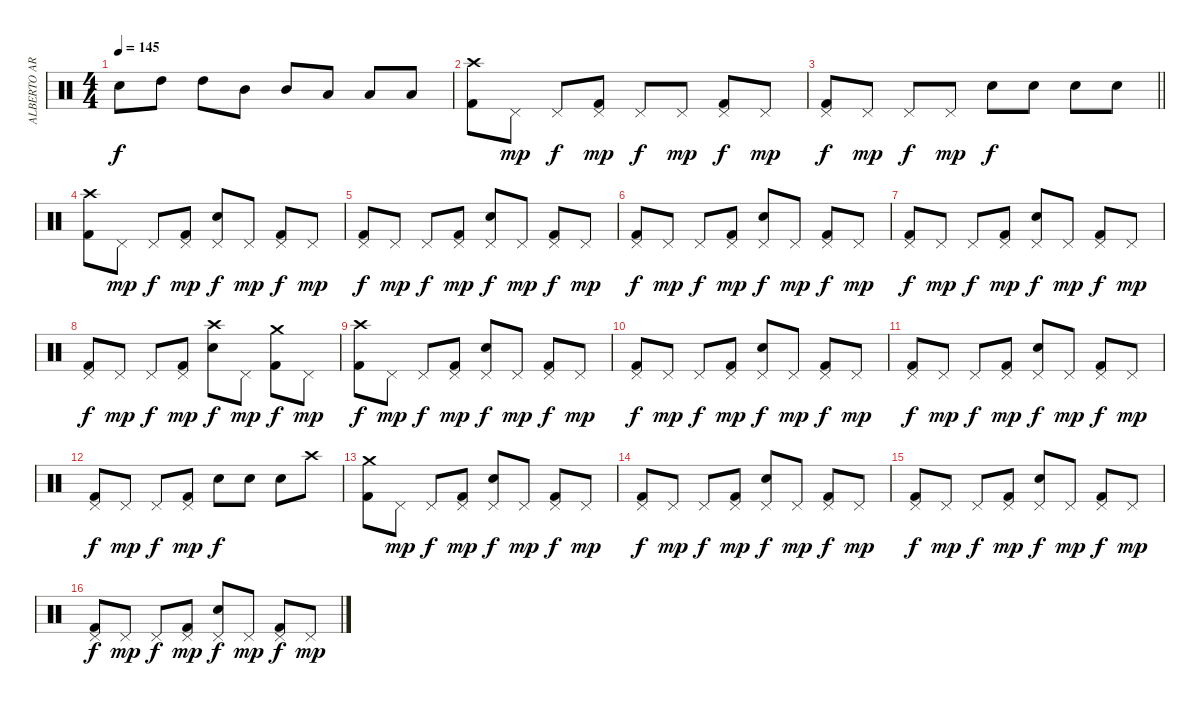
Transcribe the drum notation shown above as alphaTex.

\track ("ALBERTO ARDINES" "ALBERTO AR") {instrument percussion}
\staff {score}
\articulation defaults
\ts (4 4)
\tempo 145
\clef neutral
\ks c "Electric Snare (hit)".8{dy f} "High Tom (hit)".8 "High Tom (hit)".8 "Mid Tom (hit)".8 "Mid Tom (hit)".8 "Low Tom (hit)".8 "Low Tom (hit)".8 "Low Tom (hit)".8
|
("Crash high (hit)" "Kick (hit) 2").8 "Pedal Hi-Hat (hit)".8{dy mp} "Pedal Hi-Hat (hit)".8{dy f} ("Pedal Hi-Hat (hit)" "Kick (hit) 2").8{dy mp} "Pedal Hi-Hat (hit)".8{dy f} "Pedal Hi-Hat (hit)".8{dy mp} ("Pedal Hi-Hat (hit)" "Kick (hit) 2").8{dy f} "Pedal Hi-Hat (hit)".8{dy mp} |
\barLineRight lightlight
("Pedal Hi-Hat (hit)" "Kick (hit) 2").8{dy f} "Pedal Hi-Hat (hit)".8{dy mp} "Pedal Hi-Hat (hit)".8{dy f} "Pedal Hi-Hat (hit)".8{dy mp} "Electric Snare (hit)".8{dy f} "Electric Snare (hit)".8 "Electric Snare (hit)".8 "Electric Snare (hit)".8 |
("Crash high (hit)" "Kick (hit) 2").8 "Pedal Hi-Hat (hit)".8{dy mp} "Pedal Hi-Hat (hit)".8{dy f} ("Pedal Hi-Hat (hit)" "Kick (hit) 2").8{dy mp} ("Pedal Hi-Hat (hit)" "Electric Snare (hit)").8{dy f} "Pedal Hi-Hat (hit)".8{dy mp} ("Pedal Hi-Hat (hit)" "Kick (hit) 2").8{dy f} "Pedal Hi-Hat (hit)".8{dy mp} |
("Pedal Hi-Hat (hit)" "Kick (hit) 2").8{dy f} "Pedal Hi-Hat (hit)".8{dy mp} "Pedal Hi-Hat (hit)".8{dy f} ("Pedal Hi-Hat (hit)" "Kick (hit) 2").8{dy mp} ("Pedal Hi-Hat (hit)" "Electric Snare (hit)").8{dy f} "Pedal Hi-Hat (hit)".8{dy mp} ("Pedal Hi-Hat (hit)" "Kick (hit) 2").8{dy f} "Pedal Hi-Hat (hit)".8{dy mp} |
("Pedal Hi-Hat (hit)" "Kick (hit) 2").8{dy f} "Pedal Hi-Hat (hit)".8{dy mp} "Pedal Hi-Hat (hit)".8{dy f} ("Pedal Hi-Hat (hit)" "Kick (hit) 2").8{dy mp} ("Pedal Hi-Hat (hit)" "Electric Snare (hit)").8{dy f} "Pedal Hi-Hat (hit)".8{dy mp} ("Pedal Hi-Hat (hit)" "Kick (hit) 2").8{dy f} "Pedal Hi-Hat (hit)".8{dy mp} |
("Pedal Hi-Hat (hit)" "Kick (hit) 2").8{dy f} "Pedal Hi-Hat (hit)".8{dy mp} "Pedal Hi-Hat (hit)".8{dy f} ("Pedal Hi-Hat (hit)" "Kick (hit) 2").8{dy mp} ("Pedal Hi-Hat (hit)" "Electric Snare (hit)").8{dy f} "Pedal Hi-Hat (hit)".8{dy mp} ("Pedal Hi-Hat (hit)" "Kick (hit) 2").8{dy f} "Pedal Hi-Hat (hit)".8{dy mp} |
("Pedal Hi-Hat (hit)" "Kick (hit) 2").8{dy f} "Pedal Hi-Hat (hit)".8{dy mp} "Pedal Hi-Hat (hit)".8{dy f} ("Pedal Hi-Hat (hit)" "Kick (hit) 2").8{dy mp} ("Crash high (hit)" "Electric Snare (hit)").8{dy f} "Pedal Hi-Hat (hit)".8{dy mp} ("Crash medium (hit)" "Kick (hit) 2").8{dy f} "Pedal Hi-Hat (hit)".8{dy mp} |
("Crash high (hit)" "Kick (hit) 2").8{dy f} "Pedal Hi-Hat (hit)".8{dy mp} "Pedal Hi-Hat (hit)".8{dy f} ("Pedal Hi-Hat (hit)" "Kick (hit) 2").8{dy mp} ("Pedal Hi-Hat (hit)" "Electric Snare (hit)").8{dy f} "Pedal Hi-Hat (hit)".8{dy mp} ("Pedal Hi-Hat (hit)" "Kick (hit) 2").8{dy f} "Pedal Hi-Hat (hit)".8{dy mp} |
("Pedal Hi-Hat (hit)" "Kick (hit) 2").8{dy f} "Pedal Hi-Hat (hit)".8{dy mp} "Pedal Hi-Hat (hit)".8{dy f} ("Pedal Hi-Hat (hit)" "Kick (hit) 2").8{dy mp} ("Pedal Hi-Hat (hit)" "Electric Snare (hit)").8{dy f} "Pedal Hi-Hat (hit)".8{dy mp} ("Pedal Hi-Hat (hit)" "Kick (hit) 2").8{dy f} "Pedal Hi-Hat (hit)".8{dy mp} |
("Pedal Hi-Hat (hit)" "Kick (hit) 2").8{dy f} "Pedal Hi-Hat (hit)".8{dy mp} "Pedal Hi-Hat (hit)".8{dy f} ("Pedal Hi-Hat (hit)" "Kick (hit) 2").8{dy mp} ("Pedal Hi-Hat (hit)" "Electric Snare (hit)").8{dy f} "Pedal Hi-Hat (hit)".8{dy mp} ("Pedal Hi-Hat (hit)" "Kick (hit) 2").8{dy f} "Pedal Hi-Hat (hit)".8{dy mp} |
("Pedal Hi-Hat (hit)" "Kick (hit) 2").8{dy f} "Pedal Hi-Hat (hit)".8{dy mp} "Pedal Hi-Hat (hit)".8{dy f} ("Pedal Hi-Hat (hit)" "Kick (hit) 2").8{dy mp} "Electric Snare (hit)".8{dy f} "Electric Snare (hit)".8 "Electric Snare (hit)".8 "Crash high (hit)".8 |
("Crash medium (hit)" "Kick (hit) 2").8 "Pedal Hi-Hat (hit)".8{dy mp} "Pedal Hi-Hat (hit)".8{dy f} ("Pedal Hi-Hat (hit)" "Kick (hit) 2").8{dy mp} ("Pedal Hi-Hat (hit)" "Electric Snare (hit)").8{dy f} "Pedal Hi-Hat (hit)".8{dy mp} ("Pedal Hi-Hat (hit)" "Kick (hit) 2").8{dy f} "Pedal Hi-Hat (hit)".8{dy mp} |
("Pedal Hi-Hat (hit)" "Kick (hit) 2").8{dy f} "Pedal Hi-Hat (hit)".8{dy mp} "Pedal Hi-Hat (hit)".8{dy f} ("Pedal Hi-Hat (hit)" "Kick (hit) 2").8{dy mp} ("Pedal Hi-Hat (hit)" "Electric Snare (hit)").8{dy f} "Pedal Hi-Hat (hit)".8{dy mp} ("Pedal Hi-Hat (hit)" "Kick (hit) 2").8{dy f} "Pedal Hi-Hat (hit)".8{dy mp} |
("Pedal Hi-Hat (hit)" "Kick (hit) 2").8{dy f} "Pedal Hi-Hat (hit)".8{dy mp} "Pedal Hi-Hat (hit)".8{dy f} ("Pedal Hi-Hat (hit)" "Kick (hit) 2").8{dy mp} ("Pedal Hi-Hat (hit)" "Electric Snare (hit)").8{dy f} "Pedal Hi-Hat (hit)".8{dy mp} ("Pedal Hi-Hat (hit)" "Kick (hit) 2").8{dy f} "Pedal Hi-Hat (hit)".8{dy mp} |
("Pedal Hi-Hat (hit)" "Kick (hit) 2").8{dy f} "Pedal Hi-Hat (hit)".8{dy mp} "Pedal Hi-Hat (hit)".8{dy f} ("Pedal Hi-Hat (hit)" "Kick (hit) 2").8{dy mp} ("Pedal Hi-Hat (hit)" "Electric Snare (hit)").8{dy f} "Pedal Hi-Hat (hit)".8{dy mp} ("Pedal Hi-Hat (hit)" "Kick (hit) 2").8{dy f} "Pedal Hi-Hat (hit)".8{dy mp}
